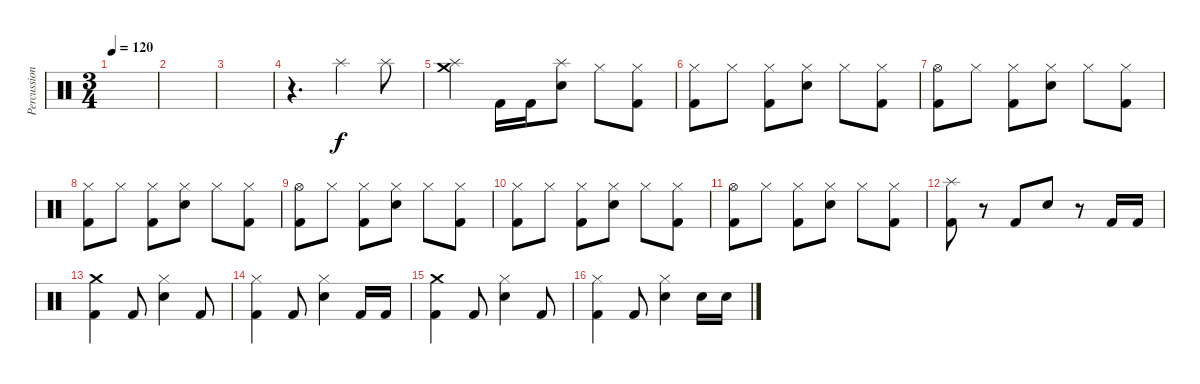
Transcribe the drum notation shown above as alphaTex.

\track ("Percussion" "Percussion") {instrument percussion}
\staff {score}
\articulation defaults
\ts (3 4)
\tempo 120
\clef neutral
\ks c
|
|
|
r.4{d} "Splash (hit)".4 "Splash (hit)".8 |
("Crash medium (hit)" "Splash (hit)").4 "Kick (hit) 2".16 "Kick (hit) 2".16 ("Splash (hit)" "Electric Snare (hit)").8 "Hi-Hat (closed)".8 ("Hi-Hat (closed)" "Kick (hit) 2").8 |
("Hi-Hat (closed)" "Kick (hit) 2").8 "Hi-Hat (closed)".8 ("Hi-Hat (closed)" "Kick (hit) 2").8 ("Hi-Hat (closed)" "Electric Snare (hit)").8 "Hi-Hat (closed)".8 ("Hi-Hat (closed)" "Kick (hit) 2").8 |
("Hi-Hat (open)" "Kick (hit) 2").8 "Hi-Hat (closed)".8 ("Hi-Hat (closed)" "Kick (hit) 2").8 ("Hi-Hat (closed)" "Electric Snare (hit)").8 "Hi-Hat (closed)".8 ("Hi-Hat (closed)" "Kick (hit) 2").8 |
("Hi-Hat (closed)" "Kick (hit) 2").8 "Hi-Hat (closed)".8 ("Hi-Hat (closed)" "Kick (hit) 2").8 ("Hi-Hat (closed)" "Electric Snare (hit)").8 "Hi-Hat (closed)".8 ("Hi-Hat (closed)" "Kick (hit) 2").8 |
("Hi-Hat (open)" "Kick (hit) 2").8 "Hi-Hat (closed)".8 ("Hi-Hat (closed)" "Kick (hit) 2").8 ("Hi-Hat (closed)" "Electric Snare (hit)").8 "Hi-Hat (closed)".8 ("Hi-Hat (closed)" "Kick (hit) 2").8 |
("Hi-Hat (closed)" "Kick (hit) 2").8 "Hi-Hat (closed)".8 ("Hi-Hat (closed)" "Kick (hit) 2").8 ("Hi-Hat (closed)" "Electric Snare (hit)").8 "Hi-Hat (closed)".8 ("Hi-Hat (closed)" "Kick (hit) 2").8 |
("Hi-Hat (open)" "Kick (hit) 2").8 "Hi-Hat (closed)".8 ("Hi-Hat (closed)" "Kick (hit) 2").8 ("Hi-Hat (closed)" "Electric Snare (hit)").8 "Hi-Hat (closed)".8 ("Hi-Hat (closed)" "Kick (hit) 2").8 |
("Splash (hit)" "Kick (hit) 2").8 r.8 "Kick (hit) 2".8 "Electric Snare (hit)".8 r.8 "Kick (hit) 2".16 "Kick (hit) 2".16 |
("Crash medium (hit)" "Kick (hit) 2").4 "Kick (hit) 2".8 ("Hi-Hat (closed)" "Electric Snare (hit)").4 "Kick (hit) 2".8 |
("Hi-Hat (closed)" "Kick (hit) 2").4 "Kick (hit) 2".8 ("Hi-Hat (closed)" "Electric Snare (hit)").4 "Kick (hit) 2".16 "Kick (hit) 2".16 |
("Crash medium (hit)" "Kick (hit) 2").4 "Kick (hit) 2".8 ("Hi-Hat (closed)" "Electric Snare (hit)").4 "Kick (hit) 2".8 |
("Hi-Hat (closed)" "Kick (hit) 2").4 "Kick (hit) 2".8 ("Hi-Hat (closed)" "Electric Snare (hit)").4 "Electric Snare (hit)".16 "Electric Snare (hit)".16
